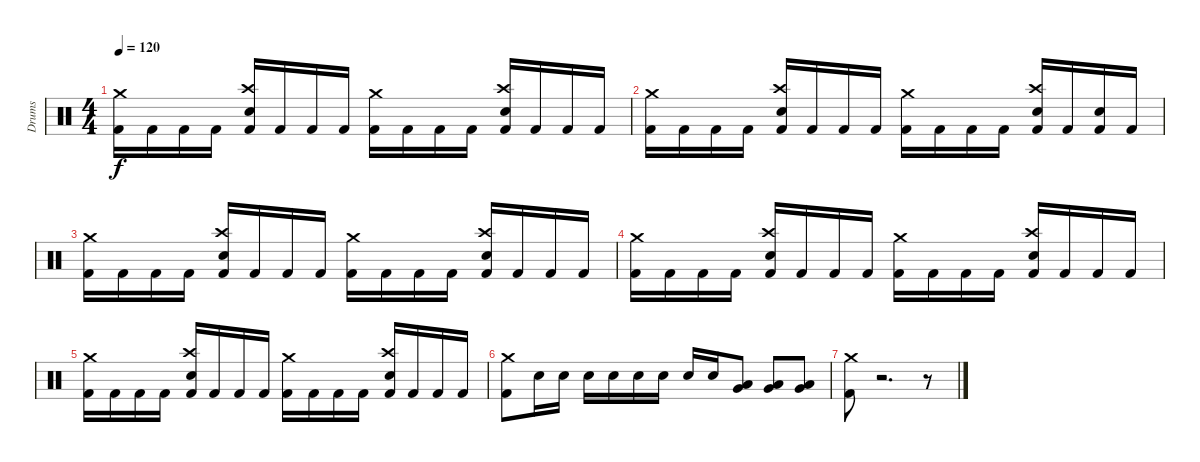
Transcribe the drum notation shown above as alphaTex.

\track ("Drums" "Drums") {instrument percussion}
\staff {score}
\articulation defaults
\ts (4 4)
\tempo 120
\clef neutral
\ks c
("Crash medium (hit)" "Kick (hit) 2").16{dy f} "Kick (hit) 2".16 "Kick (hit) 2".16 "Kick (hit) 2".16 ("Crash high (hit)" "Snare (hit) 2" "Kick (hit) 2").16 "Kick (hit) 2".16 "Kick (hit) 2".16 "Kick (hit) 2".16 ("Crash medium (hit)" "Kick (hit) 2").16 "Kick (hit) 2".16 "Kick (hit) 2".16 "Kick (hit) 2".16 ("Crash high (hit)" "Snare (hit) 2" "Kick (hit) 2").16 "Kick (hit) 2".16 "Kick (hit) 2".16 "Kick (hit) 2".16 |
("Crash medium (hit)" "Kick (hit) 2").16 "Kick (hit) 2".16 "Kick (hit) 2".16 "Kick (hit) 2".16 ("Crash high (hit)" "Snare (hit) 2" "Kick (hit) 2").16 "Kick (hit) 2".16 "Kick (hit) 2".16 "Kick (hit) 2".16 ("Crash medium (hit)" "Kick (hit) 2").16 "Kick (hit) 2".16 "Kick (hit) 2".16 "Kick (hit) 2".16 ("Crash high (hit)" "Snare (hit) 2" "Kick (hit) 2").16 "Kick (hit) 2".16 ("Snare (hit) 2" "Kick (hit) 2").16 "Kick (hit) 2".16 |
("Crash medium (hit)" "Kick (hit) 2").16 "Kick (hit) 2".16 "Kick (hit) 2".16 "Kick (hit) 2".16 ("Crash high (hit)" "Snare (hit) 2" "Kick (hit) 2").16 "Kick (hit) 2".16 "Kick (hit) 2".16 "Kick (hit) 2".16 ("Crash medium (hit)" "Kick (hit) 2").16 "Kick (hit) 2".16 "Kick (hit) 2".16 "Kick (hit) 2".16 ("Crash high (hit)" "Snare (hit) 2" "Kick (hit) 2").16 "Kick (hit) 2".16 "Kick (hit) 2".16 "Kick (hit) 2".16 |
("Crash medium (hit)" "Kick (hit) 2").16 "Kick (hit) 2".16 "Kick (hit) 2".16 "Kick (hit) 2".16 ("Crash high (hit)" "Snare (hit) 2" "Kick (hit) 2").16 "Kick (hit) 2".16 "Kick (hit) 2".16 "Kick (hit) 2".16 ("Crash medium (hit)" "Kick (hit) 2").16 "Kick (hit) 2".16 "Kick (hit) 2".16 "Kick (hit) 2".16 ("Crash high (hit)" "Snare (hit) 2" "Kick (hit) 2").16 "Kick (hit) 2".16 "Kick (hit) 2".16 "Kick (hit) 2".16 |
("Crash medium (hit)" "Kick (hit) 2").16 "Kick (hit) 2".16 "Kick (hit) 2".16 "Kick (hit) 2".16 ("Crash high (hit)" "Snare (hit) 2" "Kick (hit) 2").16 "Kick (hit) 2".16 "Kick (hit) 2".16 "Kick (hit) 2".16 ("Crash medium (hit)" "Kick (hit) 2").16 "Kick (hit) 2".16 "Kick (hit) 2".16 "Kick (hit) 2".16 ("Crash high (hit)" "Snare (hit) 2" "Kick (hit) 2").16 "Kick (hit) 2".16 "Kick (hit) 2".16 "Kick (hit) 2".16 |
("Crash medium (hit)" "Kick (hit) 2").8 "Snare (hit) 2".16 "Snare (hit) 2".16 "Snare (hit) 2".16 "Snare (hit) 2".16 "Snare (hit) 2".16 "Snare (hit) 2".16 "Snare (hit) 2".16 "Snare (hit) 2".16 ("Very Low Tom (hit)" "Low Tom (hit)").8 ("Very Low Tom (hit)" "Low Tom (hit)").8 ("Very Low Tom (hit)" "Low Tom (hit)").8 |
("Crash medium (hit)" "Kick (hit) 2").8 r.2{d} r.8
